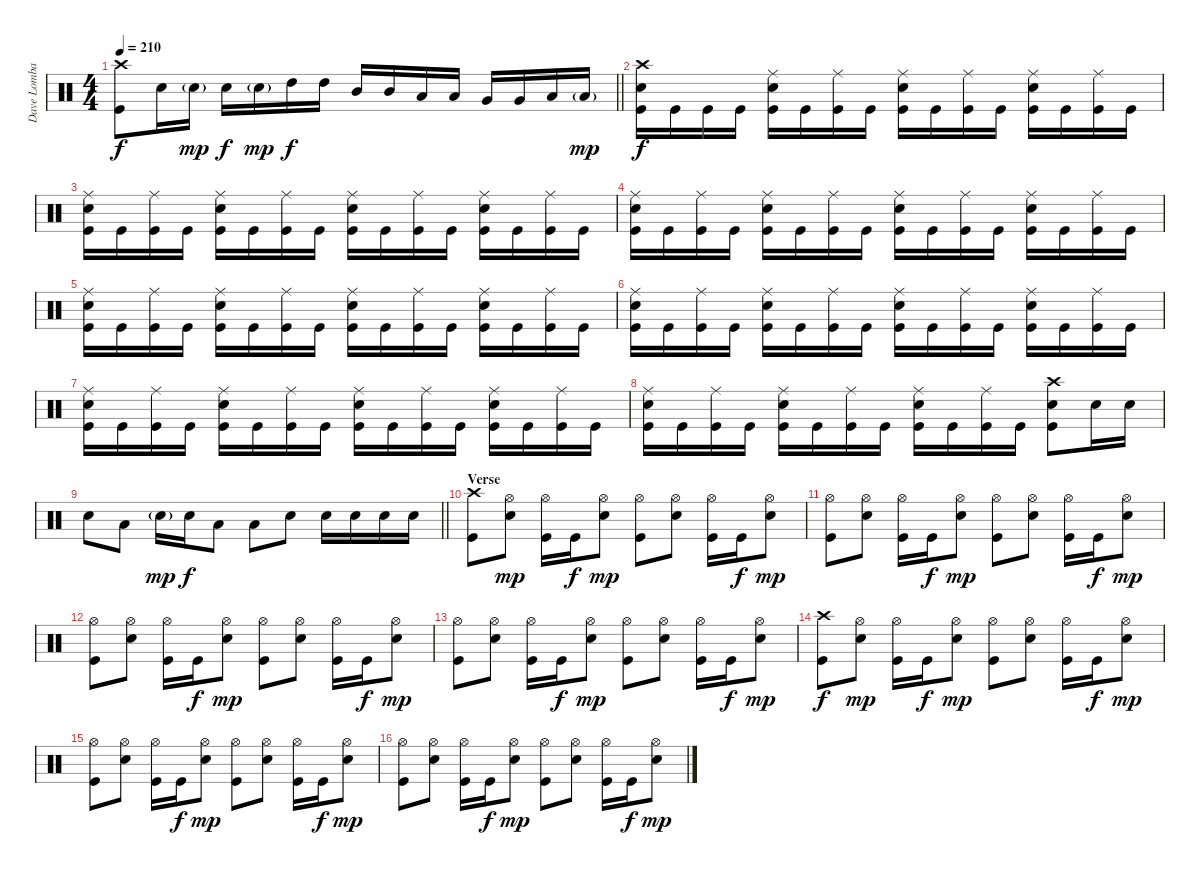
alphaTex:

\track ("Dave Lombardo" "Dave Lomba") {instrument percussion}
\staff {score}
\articulation defaults
\ts (4 4)
\tempo 210
\clef neutral
\barLineRight lightlight
\ks c
("Crash high (hit)" "Kick (hit)").8{dy f} "Electric Snare (hit)".16 "Electric Snare (hit)"{g}.16{dy mp} "Electric Snare (hit)".16{dy f} "Electric Snare (hit)"{g}.16{dy mp} "High Tom (hit)".16{dy f} "High Tom (hit)".16 "Mid Tom (hit)".16 "Mid Tom (hit)".16 "Low Tom (hit)".16 "Low Tom (hit)".16 "Very Low Tom (hit)".16 "Very Low Tom (hit)".16 "Low Floor Tom (hit)".16 "Low Floor Tom (hit)"{g}.16{dy mp} |
\section ("" "")
("Crash high (hit)" "Electric Snare (hit)" "Kick (hit)").16{dy f} "Kick (hit)".16 "Kick (hit)".16 "Kick (hit)".16 ("Ride (middle)" "Electric Snare (hit)" "Kick (hit)").16 "Kick (hit)".16 ("Ride (middle)" "Kick (hit)").16 "Kick (hit)".16 ("Ride (middle)" "Electric Snare (hit)" "Kick (hit)").16 "Kick (hit)".16 ("Ride (middle)" "Kick (hit)").16 "Kick (hit)".16 ("Ride (middle)" "Electric Snare (hit)" "Kick (hit)").16 "Kick (hit)".16 ("Ride (middle)" "Kick (hit)").16 "Kick (hit)".16 |
("Ride (middle)" "Electric Snare (hit)" "Kick (hit)").16 "Kick (hit)".16 ("Ride (middle)" "Kick (hit)").16 "Kick (hit)".16 ("Ride (middle)" "Electric Snare (hit)" "Kick (hit)").16 "Kick (hit)".16 ("Ride (middle)" "Kick (hit)").16 "Kick (hit)".16 ("Ride (middle)" "Electric Snare (hit)" "Kick (hit)").16 "Kick (hit)".16 ("Ride (middle)" "Kick (hit)").16 "Kick (hit)".16 ("Ride (middle)" "Electric Snare (hit)" "Kick (hit)").16 "Kick (hit)".16 ("Ride (middle)" "Kick (hit)").16 "Kick (hit)".16 |
("Ride (middle)" "Electric Snare (hit)" "Kick (hit)").16 "Kick (hit)".16 ("Ride (middle)" "Kick (hit)").16 "Kick (hit)".16 ("Ride (middle)" "Electric Snare (hit)" "Kick (hit)").16 "Kick (hit)".16 ("Ride (middle)" "Kick (hit)").16 "Kick (hit)".16 ("Ride (middle)" "Electric Snare (hit)" "Kick (hit)").16 "Kick (hit)".16 ("Ride (middle)" "Kick (hit)").16 "Kick (hit)".16 ("Ride (middle)" "Electric Snare (hit)" "Kick (hit)").16 "Kick (hit)".16 ("Ride (middle)" "Kick (hit)").16 "Kick (hit)".16 |
("Ride (middle)" "Electric Snare (hit)" "Kick (hit)").16 "Kick (hit)".16 ("Ride (middle)" "Kick (hit)").16 "Kick (hit)".16 ("Ride (middle)" "Electric Snare (hit)" "Kick (hit)").16 "Kick (hit)".16 ("Ride (middle)" "Kick (hit)").16 "Kick (hit)".16 ("Ride (middle)" "Electric Snare (hit)" "Kick (hit)").16 "Kick (hit)".16 ("Ride (middle)" "Kick (hit)").16 "Kick (hit)".16 ("Ride (middle)" "Electric Snare (hit)" "Kick (hit)").16 "Kick (hit)".16 ("Ride (middle)" "Kick (hit)").16 "Kick (hit)".16 |
("Ride (middle)" "Electric Snare (hit)" "Kick (hit)").16 "Kick (hit)".16 ("Ride (middle)" "Kick (hit)").16 "Kick (hit)".16 ("Ride (middle)" "Electric Snare (hit)" "Kick (hit)").16 "Kick (hit)".16 ("Ride (middle)" "Kick (hit)").16 "Kick (hit)".16 ("Ride (middle)" "Electric Snare (hit)" "Kick (hit)").16 "Kick (hit)".16 ("Ride (middle)" "Kick (hit)").16 "Kick (hit)".16 ("Ride (middle)" "Electric Snare (hit)" "Kick (hit)").16 "Kick (hit)".16 ("Ride (middle)" "Kick (hit)").16 "Kick (hit)".16 |
("Ride (middle)" "Electric Snare (hit)" "Kick (hit)").16 "Kick (hit)".16 ("Ride (middle)" "Kick (hit)").16 "Kick (hit)".16 ("Ride (middle)" "Electric Snare (hit)" "Kick (hit)").16 "Kick (hit)".16 ("Ride (middle)" "Kick (hit)").16 "Kick (hit)".16 ("Ride (middle)" "Electric Snare (hit)" "Kick (hit)").16 "Kick (hit)".16 ("Ride (middle)" "Kick (hit)").16 "Kick (hit)".16 ("Ride (middle)" "Electric Snare (hit)" "Kick (hit)").16 "Kick (hit)".16 ("Ride (middle)" "Kick (hit)").16 "Kick (hit)".16 |
("Ride (middle)" "Electric Snare (hit)" "Kick (hit)").16 "Kick (hit)".16 ("Ride (middle)" "Kick (hit)").16 "Kick (hit)".16 ("Ride (middle)" "Electric Snare (hit)" "Kick (hit)").16 "Kick (hit)".16 ("Ride (middle)" "Kick (hit)").16 "Kick (hit)".16 ("Ride (middle)" "Electric Snare (hit)" "Kick (hit)").16 "Kick (hit)".16 ("Ride (middle)" "Kick (hit)").16 "Kick (hit)".16 ("Crash high (hit)" "Electric Snare (hit)" "Kick (hit)").8 "Electric Snare (hit)".16 "Electric Snare (hit)".16 |
\barLineRight lightlight "Electric Snare (hit)".8 "Low Tom (hit)".8 "Electric Snare (hit)"{g}.16{dy mp} "Electric Snare (hit)".16{dy f} "Low Tom (hit)".8 "Low Tom (hit)".8 "Electric Snare (hit)".8 "Electric Snare (hit)".16 "Electric Snare (hit)".16 "Electric Snare (hit)".16 "Electric Snare (hit)".16
|
\section ("" "Verse")
("Crash high (hit)" "Kick (hit)").8 ("Hi-Hat (open)" "Electric Snare (hit)").8{dy mp} ("Hi-Hat (open)" "Kick (hit)").16 "Kick (hit)".16{dy f} ("Hi-Hat (open)" "Electric Snare (hit)").8{dy mp} ("Hi-Hat (open)" "Kick (hit)").8 ("Hi-Hat (open)" "Electric Snare (hit)").8 ("Hi-Hat (open)" "Kick (hit)").16 "Kick (hit)".16{dy f} ("Hi-Hat (open)" "Electric Snare (hit)").8{dy mp} |
("Hi-Hat (open)" "Kick (hit)").8 ("Hi-Hat (open)" "Electric Snare (hit)").8 ("Hi-Hat (open)" "Kick (hit)").16 "Kick (hit)".16{dy f} ("Hi-Hat (open)" "Electric Snare (hit)").8{dy mp} ("Hi-Hat (open)" "Kick (hit)").8 ("Hi-Hat (open)" "Electric Snare (hit)").8 ("Hi-Hat (open)" "Kick (hit)").16 "Kick (hit)".16{dy f} ("Hi-Hat (open)" "Electric Snare (hit)").8{dy mp} |
("Hi-Hat (open)" "Kick (hit)").8 ("Hi-Hat (open)" "Electric Snare (hit)").8 ("Hi-Hat (open)" "Kick (hit)").16 "Kick (hit)".16{dy f} ("Hi-Hat (open)" "Electric Snare (hit)").8{dy mp} ("Hi-Hat (open)" "Kick (hit)").8 ("Hi-Hat (open)" "Electric Snare (hit)").8 ("Hi-Hat (open)" "Kick (hit)").16 "Kick (hit)".16{dy f} ("Hi-Hat (open)" "Electric Snare (hit)").8{dy mp} |
("Hi-Hat (open)" "Kick (hit)").8 ("Hi-Hat (open)" "Electric Snare (hit)").8 ("Hi-Hat (open)" "Kick (hit)").16 "Kick (hit)".16{dy f} ("Hi-Hat (open)" "Electric Snare (hit)").8{dy mp} ("Hi-Hat (open)" "Kick (hit)").8 ("Hi-Hat (open)" "Electric Snare (hit)").8 ("Hi-Hat (open)" "Kick (hit)").16 "Kick (hit)".16{dy f} ("Hi-Hat (open)" "Electric Snare (hit)").8{dy mp} |
("Crash high (hit)" "Kick (hit)").8{dy f} ("Hi-Hat (open)" "Electric Snare (hit)").8{dy mp} ("Hi-Hat (open)" "Kick (hit)").16 "Kick (hit)".16{dy f} ("Hi-Hat (open)" "Electric Snare (hit)").8{dy mp} ("Hi-Hat (open)" "Kick (hit)").8 ("Hi-Hat (open)" "Electric Snare (hit)").8 ("Hi-Hat (open)" "Kick (hit)").16 "Kick (hit)".16{dy f} ("Hi-Hat (open)" "Electric Snare (hit)").8{dy mp} |
("Hi-Hat (open)" "Kick (hit)").8 ("Hi-Hat (open)" "Electric Snare (hit)").8 ("Hi-Hat (open)" "Kick (hit)").16 "Kick (hit)".16{dy f} ("Hi-Hat (open)" "Electric Snare (hit)").8{dy mp} ("Hi-Hat (open)" "Kick (hit)").8 ("Hi-Hat (open)" "Electric Snare (hit)").8 ("Hi-Hat (open)" "Kick (hit)").16 "Kick (hit)".16{dy f} ("Hi-Hat (open)" "Electric Snare (hit)").8{dy mp} |
("Hi-Hat (open)" "Kick (hit)").8 ("Hi-Hat (open)" "Electric Snare (hit)").8 ("Hi-Hat (open)" "Kick (hit)").16 "Kick (hit)".16{dy f} ("Hi-Hat (open)" "Electric Snare (hit)").8{dy mp} ("Hi-Hat (open)" "Kick (hit)").8 ("Hi-Hat (open)" "Electric Snare (hit)").8 ("Hi-Hat (open)" "Kick (hit)").16 "Kick (hit)".16{dy f} ("Hi-Hat (open)" "Electric Snare (hit)").8{dy mp}
